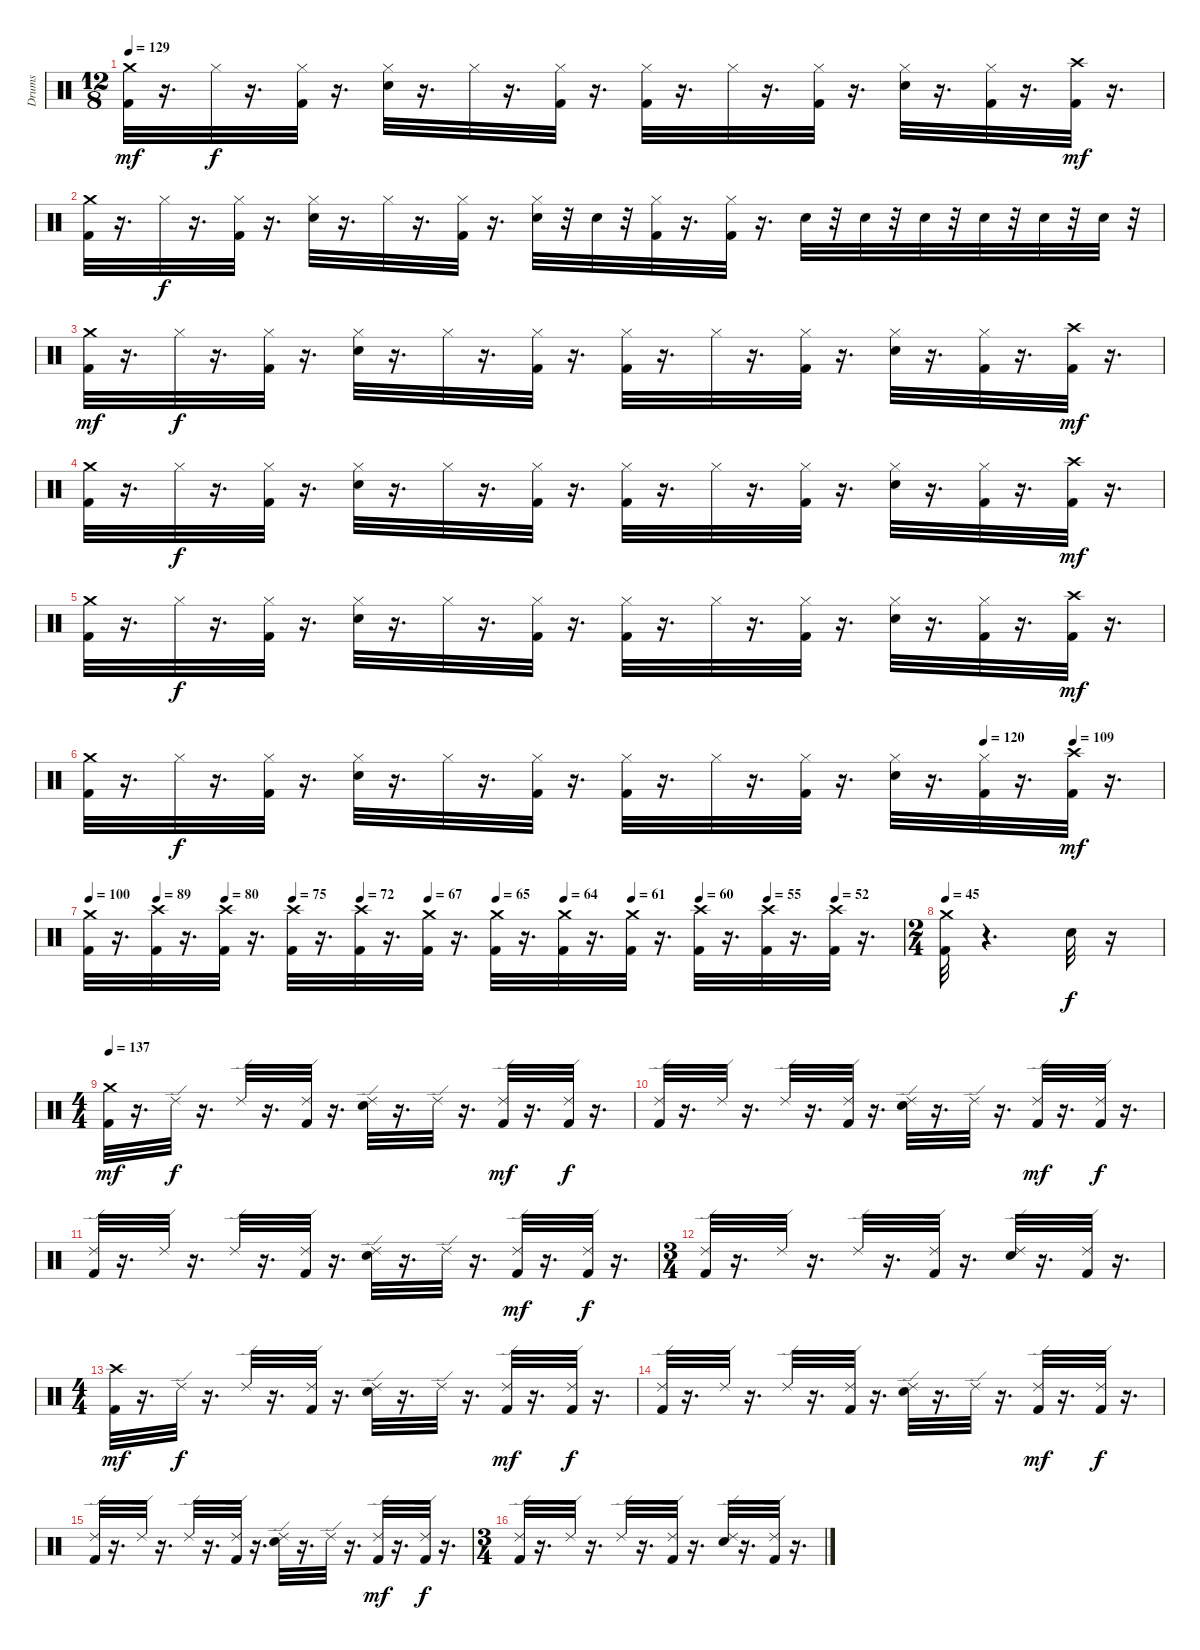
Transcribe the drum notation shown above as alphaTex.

\track ("Drums" "Drums") {instrument percussion}
\staff {score}
\articulation defaults
\ts (12 8)
\tempo 129
\clef neutral
\ks c
("Kick (hit) 2" "Crash medium (hit)").32{dy mf} r.16{d} "Hi-Hat (closed)".32{dy f} r.16{d} ("Kick (hit) 2" "Hi-Hat (closed)").32 r.16{d} ("Snare (hit) 2" "Hi-Hat (closed)").32 r.16{d} "Hi-Hat (closed)".32 r.16{d} ("Kick (hit) 2" "Hi-Hat (closed)").32 r.16{d} ("Kick (hit) 2" "Hi-Hat (closed)").32 r.16{d} "Hi-Hat (closed)".32 r.16{d} ("Kick (hit) 2" "Hi-Hat (closed)").32 r.16{d} ("Snare (hit) 2" "Hi-Hat (closed)").32 r.16{d} ("Kick (hit) 2" "Hi-Hat (closed)").32 r.16{d} ("Kick (hit) 2" "Crash high (hit)").32{dy mf} r.16{d} |
("Kick (hit) 2" "Crash medium (hit)").32 r.16{d} "Hi-Hat (closed)".32{dy f} r.16{d} ("Kick (hit) 2" "Hi-Hat (closed)").32 r.16{d} ("Snare (hit) 2" "Hi-Hat (closed)").32 r.16{d} "Hi-Hat (closed)".32 r.16{d} ("Kick (hit) 2" "Hi-Hat (closed)").32 r.16{d} ("Snare (hit) 2" "Hi-Hat (closed)").32 r.32 "Snare (hit) 2".32 r.32 ("Kick (hit) 2" "Hi-Hat (closed)").32 r.16{d} ("Kick (hit) 2" "Hi-Hat (closed)").32 r.16{d} "Snare (hit) 2".32 r.32 "Snare (hit) 2".32 r.32 "Snare (hit) 2".32 r.32 "Snare (hit) 2".32 r.32 "Snare (hit) 2".32 r.32 "Snare (hit) 2".32 r.32 |
("Kick (hit) 2" "Crash medium (hit)").32{dy mf} r.16{d} "Hi-Hat (closed)".32{dy f} r.16{d} ("Kick (hit) 2" "Hi-Hat (closed)").32 r.16{d} ("Snare (hit) 2" "Hi-Hat (closed)").32 r.16{d} "Hi-Hat (closed)".32 r.16{d} ("Kick (hit) 2" "Hi-Hat (closed)").32 r.16{d} ("Kick (hit) 2" "Hi-Hat (closed)").32 r.16{d} "Hi-Hat (closed)".32 r.16{d} ("Kick (hit) 2" "Hi-Hat (closed)").32 r.16{d} ("Snare (hit) 2" "Hi-Hat (closed)").32 r.16{d} ("Kick (hit) 2" "Hi-Hat (closed)").32 r.16{d} ("Kick (hit) 2" "Crash high (hit)").32{dy mf} r.16{d} |
("Kick (hit) 2" "Crash medium (hit)").32 r.16{d} "Hi-Hat (closed)".32{dy f} r.16{d} ("Kick (hit) 2" "Hi-Hat (closed)").32 r.16{d} ("Snare (hit) 2" "Hi-Hat (closed)").32 r.16{d} "Hi-Hat (closed)".32 r.16{d} ("Kick (hit) 2" "Hi-Hat (closed)").32 r.16{d} ("Kick (hit) 2" "Hi-Hat (closed)").32 r.16{d} "Hi-Hat (closed)".32 r.16{d} ("Kick (hit) 2" "Hi-Hat (closed)").32 r.16{d} ("Snare (hit) 2" "Hi-Hat (closed)").32 r.16{d} ("Kick (hit) 2" "Hi-Hat (closed)").32 r.16{d} ("Kick (hit) 2" "Crash high (hit)").32{dy mf} r.16{d} |
("Kick (hit) 2" "Crash medium (hit)").32 r.16{d} "Hi-Hat (closed)".32{dy f} r.16{d} ("Kick (hit) 2" "Hi-Hat (closed)").32 r.16{d} ("Snare (hit) 2" "Hi-Hat (closed)").32 r.16{d} "Hi-Hat (closed)".32 r.16{d} ("Kick (hit) 2" "Hi-Hat (closed)").32 r.16{d} ("Kick (hit) 2" "Hi-Hat (closed)").32 r.16{d} "Hi-Hat (closed)".32 r.16{d} ("Kick (hit) 2" "Hi-Hat (closed)").32 r.16{d} ("Snare (hit) 2" "Hi-Hat (closed)").32 r.16{d} ("Kick (hit) 2" "Hi-Hat (closed)").32 r.16{d} ("Kick (hit) 2" "Crash high (hit)").32{dy mf} r.16{d} |
\tempo (120 0.8333333333333334)
\tempo (109 0.9166666666666666)
("Kick (hit) 2" "Crash medium (hit)").32 r.16{d} "Hi-Hat (closed)".32{dy f} r.16{d} ("Kick (hit) 2" "Hi-Hat (closed)").32 r.16{d} ("Snare (hit) 2" "Hi-Hat (closed)").32 r.16{d} "Hi-Hat (closed)".32 r.16{d} ("Kick (hit) 2" "Hi-Hat (closed)").32 r.16{d} ("Kick (hit) 2" "Hi-Hat (closed)").32 r.16{d} "Hi-Hat (closed)".32 r.16{d} ("Kick (hit) 2" "Hi-Hat (closed)").32 r.16{d} ("Snare (hit) 2" "Hi-Hat (closed)").32 r.16{d} ("Kick (hit) 2" "Hi-Hat (closed)").32 r.16{d} ("Kick (hit) 2" "Crash high (hit)").32{dy mf} r.16{d} |
\tempo 100
\tempo (89 0.08333333333333333)
\tempo (80 0.16666666666666666)
\tempo (75 0.25)
\tempo (72 0.3333333333333333)
\tempo (67 0.4166666666666667)
\tempo (65 0.5)
\tempo (64 0.5833333333333334)
\tempo (61 0.6666666666666666)
\tempo (60 0.75)
\tempo (55 0.8333333333333334)
\tempo (52 0.9166666666666666)
("Kick (hit) 2" "Crash medium (hit)").32 r.16{d} ("Kick (hit) 2" "Crash high (hit)").32 r.16{d} ("Kick (hit) 2" "Crash high (hit)").32 r.16{d} ("Kick (hit) 2" "Crash high (hit)").32 r.16{d} ("Kick (hit) 2" "Crash high (hit)").32 r.16{d} ("Kick (hit) 2" "Crash medium (hit)").32 r.16{d} ("Kick (hit) 2" "Crash medium (hit)").32 r.16{d} ("Kick (hit) 2" "Crash medium (hit)").32 r.16{d} ("Kick (hit) 2" "Crash medium (hit)").32 r.16{d} ("Kick (hit) 2" "Crash high (hit)").32 r.16{d} ("Kick (hit) 2" "Crash high (hit)").32 r.16{d} ("Kick (hit) 2" "Crash high (hit)").32 r.16{d} |
\ts (2 4)
\tempo 45
("Kick (hit) 2" "Crash medium (hit)").32 r.4{d} "Snare (hit) 2".32{dy f} r.16 |
\ts (4 4)
\tempo 137
("Kick (hit) 2" "Crash medium (hit)").32{dy mf} r.16{d} "Ride (edge) 2".32{dy f} r.16{d} "Ride (edge) 2".32 r.16{d} ("Kick (hit) 2" "Ride (edge) 2").32 r.16{d} ("Snare (hit) 2" "Ride (edge) 2").32 r.16{d} "Ride (edge) 2".32 r.16{d} ("Kick (hit) 2" "Ride (edge) 2").32{dy mf} r.16{d} ("Kick (hit) 2" "Ride (edge) 2").32{dy f} r.16{d} |
("Kick (hit) 2" "Ride (edge) 2").32 r.16{d} "Ride (edge) 2".32 r.16{d} "Ride (edge) 2".32 r.16{d} ("Kick (hit) 2" "Ride (edge) 2").32 r.16{d} ("Snare (hit) 2" "Ride (edge) 2").32 r.16{d} "Ride (edge) 2".32 r.16{d} ("Kick (hit) 2" "Ride (edge) 2").32{dy mf} r.16{d} ("Kick (hit) 2" "Ride (edge) 2").32{dy f} r.16{d} |
("Kick (hit) 2" "Ride (edge) 2").32 r.16{d} "Ride (edge) 2".32 r.16{d} "Ride (edge) 2".32 r.16{d} ("Kick (hit) 2" "Ride (edge) 2").32 r.16{d} ("Snare (hit) 2" "Ride (edge) 2").32 r.16{d} "Ride (edge) 2".32 r.16{d} ("Kick (hit) 2" "Ride (edge) 2").32{dy mf} r.16{d} ("Kick (hit) 2" "Ride (edge) 2").32{dy f} r.16{d} |
\ts (3 4)
("Kick (hit) 2" "Ride (edge) 2").32 r.16{d} "Ride (edge) 2".32 r.16{d} "Ride (edge) 2".32 r.16{d} ("Kick (hit) 2" "Ride (edge) 2").32 r.16{d} ("Snare (hit) 2" "Ride (edge) 2").32 r.16{d} ("Kick (hit) 2" "Ride (edge) 2").32 r.16{d} |
\ts (4 4)
("Kick (hit) 2" "Crash high (hit)").32{dy mf} r.16{d} "Ride (edge) 2".32{dy f} r.16{d} "Ride (edge) 2".32 r.16{d} ("Kick (hit) 2" "Ride (edge) 2").32 r.16{d} ("Snare (hit) 2" "Ride (edge) 2").32 r.16{d} "Ride (edge) 2".32 r.16{d} ("Kick (hit) 2" "Ride (edge) 2").32{dy mf} r.16{d} ("Kick (hit) 2" "Ride (edge) 2").32{dy f} r.16{d} |
("Kick (hit) 2" "Ride (edge) 2").32 r.16{d} "Ride (edge) 2".32 r.16{d} "Ride (edge) 2".32 r.16{d} ("Kick (hit) 2" "Ride (edge) 2").32 r.16{d} ("Snare (hit) 2" "Ride (edge) 2").32 r.16{d} "Ride (edge) 2".32 r.16{d} ("Kick (hit) 2" "Ride (edge) 2").32{dy mf} r.16{d} ("Kick (hit) 2" "Ride (edge) 2").32{dy f} r.16{d} |
("Kick (hit) 2" "Ride (edge) 2").32 r.16{d} "Ride (edge) 2".32 r.16{d} "Ride (edge) 2".32 r.16{d} ("Kick (hit) 2" "Ride (edge) 2").32 r.16{d} ("Snare (hit) 2" "Ride (edge) 2").32 r.16{d} "Ride (edge) 2".32 r.16{d} ("Kick (hit) 2" "Ride (edge) 2").32{dy mf} r.16{d} ("Kick (hit) 2" "Ride (edge) 2").32{dy f} r.16{d} |
\ts (3 4)
("Kick (hit) 2" "Ride (edge) 2").32 r.16{d} "Ride (edge) 2".32 r.16{d} "Ride (edge) 2".32 r.16{d} ("Kick (hit) 2" "Ride (edge) 2").32 r.16{d} ("Snare (hit) 2" "Ride (edge) 2").32 r.16{d} ("Kick (hit) 2" "Ride (edge) 2").32 r.16{d}
